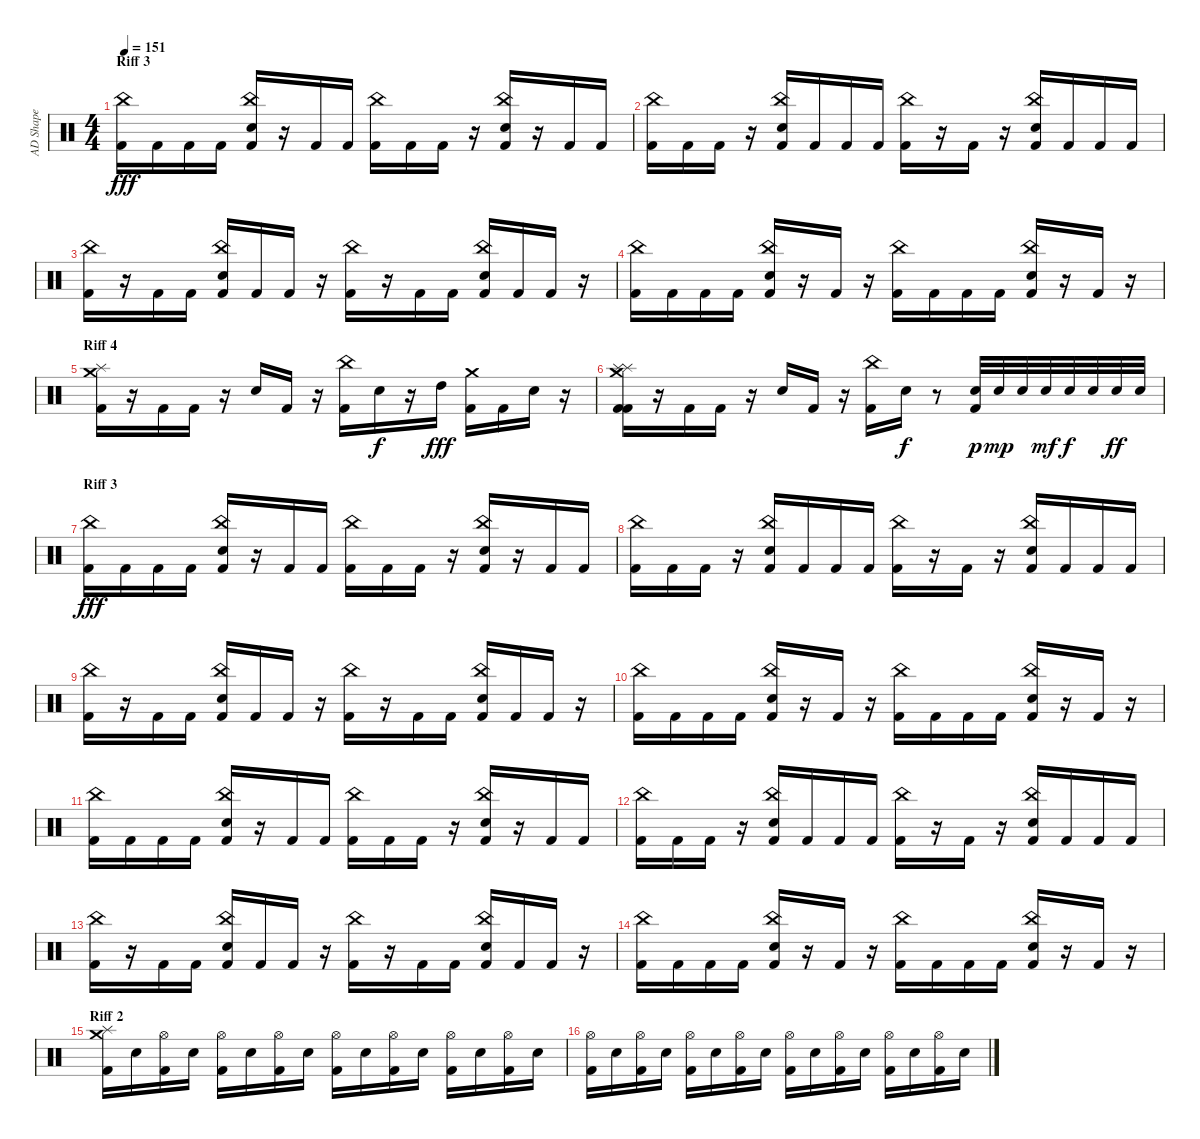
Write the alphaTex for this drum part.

\track ("AD Shape" "AD Shape") {instrument percussion}
\staff {score}
\articulation defaults
\ts (4 4)
\section ("" "Riff 3")
\tempo 151
\clef neutral
\ks c
("Kick (hit) 2" "China (hit)").16{dy fff} "Kick (hit) 2".16 "Kick (hit) 2".16 "Kick (hit) 2".16 ("Kick (hit) 2" "Snare (hit) 2" "China (hit)").16 r.16 "Kick (hit) 2".16 "Kick (hit) 2".16 ("Kick (hit) 2" "China (hit)").16 "Kick (hit) 2".16 "Kick (hit) 2".16 r.16 ("Kick (hit) 2" "Snare (hit) 2" "China (hit)").16 r.16 "Kick (hit) 2".16 "Kick (hit) 2".16 |
("Kick (hit) 2" "China (hit)").16 "Kick (hit) 2".16 "Kick (hit) 2".16 r.16 ("Kick (hit) 2" "Snare (hit) 2" "China (hit)").16 "Kick (hit) 2".16 "Kick (hit) 2".16 "Kick (hit) 2".16 ("Kick (hit) 2" "China (hit)").16 r.16 "Kick (hit) 2".16 r.16 ("Kick (hit) 2" "Snare (hit) 2" "China (hit)").16 "Kick (hit) 2".16 "Kick (hit) 2".16 "Kick (hit) 2".16 |
("Kick (hit) 2" "China (hit)").16 r.16 "Kick (hit) 2".16 "Kick (hit) 2".16 ("Kick (hit) 2" "Snare (hit) 2" "China (hit)").16 "Kick (hit) 2".16 "Kick (hit) 2".16 r.16 ("Kick (hit) 2" "China (hit)").16 r.16 "Kick (hit) 2".16 "Kick (hit) 2".16 ("Kick (hit) 2" "Snare (hit) 2" "China (hit)").16 "Kick (hit) 2".16 "Kick (hit) 2".16 r.16 |
("Kick (hit) 2" "China (hit)").16 "Kick (hit) 2".16 "Kick (hit) 2".16 "Kick (hit) 2".16 ("Kick (hit) 2" "Snare (hit) 2" "China (hit)").16 r.16 "Kick (hit) 2".16 r.16 ("Kick (hit) 2" "China (hit)").16 "Kick (hit) 2".16 "Kick (hit) 2".16 "Kick (hit) 2".16 ("Kick (hit) 2" "Snare (hit) 2" "China (hit)").16 r.16 "Kick (hit) 2".16 r.16 |
\section ("" "Riff 4")
("Kick (hit) 2" "Splash (hit)" "Crash medium (hit)").16 r.16 "Kick (hit) 2".16 "Kick (hit) 2".16 r.16 "Snare (hit) 2".16 "Kick (hit) 2".16 r.16 ("Kick (hit) 2" "China (hit)").16 "Snare (hit) 2".16{dy f} r.16 "High Tom (hit)".16{dy fff} ("Kick (hit) 2" "Crash medium (hit)").16 "Kick (hit) 2".16 "Snare (hit) 2".16 r.16 |
("Kick (hit) 2" "Splash (hit)" "Kick (hit) 2" "Splash (hit)" "Crash medium (hit)").16 r.16 "Kick (hit) 2".16 "Kick (hit) 2".16 r.16 "Snare (hit) 2".16 "Kick (hit) 2".16 r.16 ("Kick (hit) 2" "China (hit)").16 "Snare (hit) 2".16{dy f} r.8 ("Kick (hit) 2" "Snare (hit) 2").32{dy p} "Snare (hit) 2".32{dy mp} "Snare (hit) 2".32 "Snare (hit) 2".32{dy mf} "Snare (hit) 2".32{dy f} "Snare (hit) 2".32 "Snare (hit) 2".32{dy ff} "Snare (hit) 2".32 |
\section ("" "Riff 3")
("Kick (hit) 2" "China (hit)").16{dy fff} "Kick (hit) 2".16 "Kick (hit) 2".16 "Kick (hit) 2".16 ("Kick (hit) 2" "Snare (hit) 2" "China (hit)").16 r.16 "Kick (hit) 2".16 "Kick (hit) 2".16 ("Kick (hit) 2" "China (hit)").16 "Kick (hit) 2".16 "Kick (hit) 2".16 r.16 ("Kick (hit) 2" "Snare (hit) 2" "China (hit)").16 r.16 "Kick (hit) 2".16 "Kick (hit) 2".16 |
("Kick (hit) 2" "China (hit)").16 "Kick (hit) 2".16 "Kick (hit) 2".16 r.16 ("Kick (hit) 2" "Snare (hit) 2" "China (hit)").16 "Kick (hit) 2".16 "Kick (hit) 2".16 "Kick (hit) 2".16 ("Kick (hit) 2" "China (hit)").16 r.16 "Kick (hit) 2".16 r.16 ("Kick (hit) 2" "Snare (hit) 2" "China (hit)").16 "Kick (hit) 2".16 "Kick (hit) 2".16 "Kick (hit) 2".16 |
("Kick (hit) 2" "China (hit)").16 r.16 "Kick (hit) 2".16 "Kick (hit) 2".16 ("Kick (hit) 2" "Snare (hit) 2" "China (hit)").16 "Kick (hit) 2".16 "Kick (hit) 2".16 r.16 ("Kick (hit) 2" "China (hit)").16 r.16 "Kick (hit) 2".16 "Kick (hit) 2".16 ("Kick (hit) 2" "Snare (hit) 2" "China (hit)").16 "Kick (hit) 2".16 "Kick (hit) 2".16 r.16 |
("Kick (hit) 2" "China (hit)").16 "Kick (hit) 2".16 "Kick (hit) 2".16 "Kick (hit) 2".16 ("Kick (hit) 2" "Snare (hit) 2" "China (hit)").16 r.16 "Kick (hit) 2".16 r.16 ("Kick (hit) 2" "China (hit)").16 "Kick (hit) 2".16 "Kick (hit) 2".16 "Kick (hit) 2".16 ("Kick (hit) 2" "Snare (hit) 2" "China (hit)").16 r.16 "Kick (hit) 2".16 r.16 |
("Kick (hit) 2" "China (hit)").16 "Kick (hit) 2".16 "Kick (hit) 2".16 "Kick (hit) 2".16 ("Kick (hit) 2" "Snare (hit) 2" "China (hit)").16 r.16 "Kick (hit) 2".16 "Kick (hit) 2".16 ("Kick (hit) 2" "China (hit)").16 "Kick (hit) 2".16 "Kick (hit) 2".16 r.16 ("Kick (hit) 2" "Snare (hit) 2" "China (hit)").16 r.16 "Kick (hit) 2".16 "Kick (hit) 2".16 |
("Kick (hit) 2" "China (hit)").16 "Kick (hit) 2".16 "Kick (hit) 2".16 r.16 ("Kick (hit) 2" "Snare (hit) 2" "China (hit)").16 "Kick (hit) 2".16 "Kick (hit) 2".16 "Kick (hit) 2".16 ("Kick (hit) 2" "China (hit)").16 r.16 "Kick (hit) 2".16 r.16 ("Kick (hit) 2" "Snare (hit) 2" "China (hit)").16 "Kick (hit) 2".16 "Kick (hit) 2".16 "Kick (hit) 2".16 |
("Kick (hit) 2" "China (hit)").16 r.16 "Kick (hit) 2".16 "Kick (hit) 2".16 ("Kick (hit) 2" "Snare (hit) 2" "China (hit)").16 "Kick (hit) 2".16 "Kick (hit) 2".16 r.16 ("Kick (hit) 2" "China (hit)").16 r.16 "Kick (hit) 2".16 "Kick (hit) 2".16 ("Kick (hit) 2" "Snare (hit) 2" "China (hit)").16 "Kick (hit) 2".16 "Kick (hit) 2".16 r.16 |
("Kick (hit) 2" "China (hit)").16 "Kick (hit) 2".16 "Kick (hit) 2".16 "Kick (hit) 2".16 ("Kick (hit) 2" "Snare (hit) 2" "China (hit)").16 r.16 "Kick (hit) 2".16 r.16 ("Kick (hit) 2" "China (hit)").16 "Kick (hit) 2".16 "Kick (hit) 2".16 "Kick (hit) 2".16 ("Kick (hit) 2" "Snare (hit) 2" "China (hit)").16 r.16 "Kick (hit) 2".16 r.16 |
\section ("" "Riff 2")
("Kick (hit) 2" "Splash (hit)" "Crash medium (hit)").16 "Snare (hit) 2".16 ("Kick (hit) 2" "Hi-Hat (open)").16 "Snare (hit) 2".16 ("Kick (hit) 2" "Hi-Hat (open)").16 "Snare (hit) 2".16 ("Kick (hit) 2" "Hi-Hat (open)").16 "Snare (hit) 2".16 ("Kick (hit) 2" "Hi-Hat (open)").16 "Snare (hit) 2".16 ("Kick (hit) 2" "Hi-Hat (open)").16 "Snare (hit) 2".16 ("Kick (hit) 2" "Hi-Hat (open)").16 "Snare (hit) 2".16 ("Kick (hit) 2" "Hi-Hat (open)").16 "Snare (hit) 2".16 |
("Kick (hit) 2" "Hi-Hat (open)").16 "Snare (hit) 2".16 ("Kick (hit) 2" "Hi-Hat (open)").16 "Snare (hit) 2".16 ("Kick (hit) 2" "Hi-Hat (open)").16 "Snare (hit) 2".16 ("Kick (hit) 2" "Hi-Hat (open)").16 "Snare (hit) 2".16 ("Kick (hit) 2" "Hi-Hat (open)").16 "Snare (hit) 2".16 ("Kick (hit) 2" "Hi-Hat (open)").16 "Snare (hit) 2".16 ("Kick (hit) 2" "Hi-Hat (open)").16 "Snare (hit) 2".16 ("Kick (hit) 2" "Hi-Hat (open)").16 "Snare (hit) 2".16
